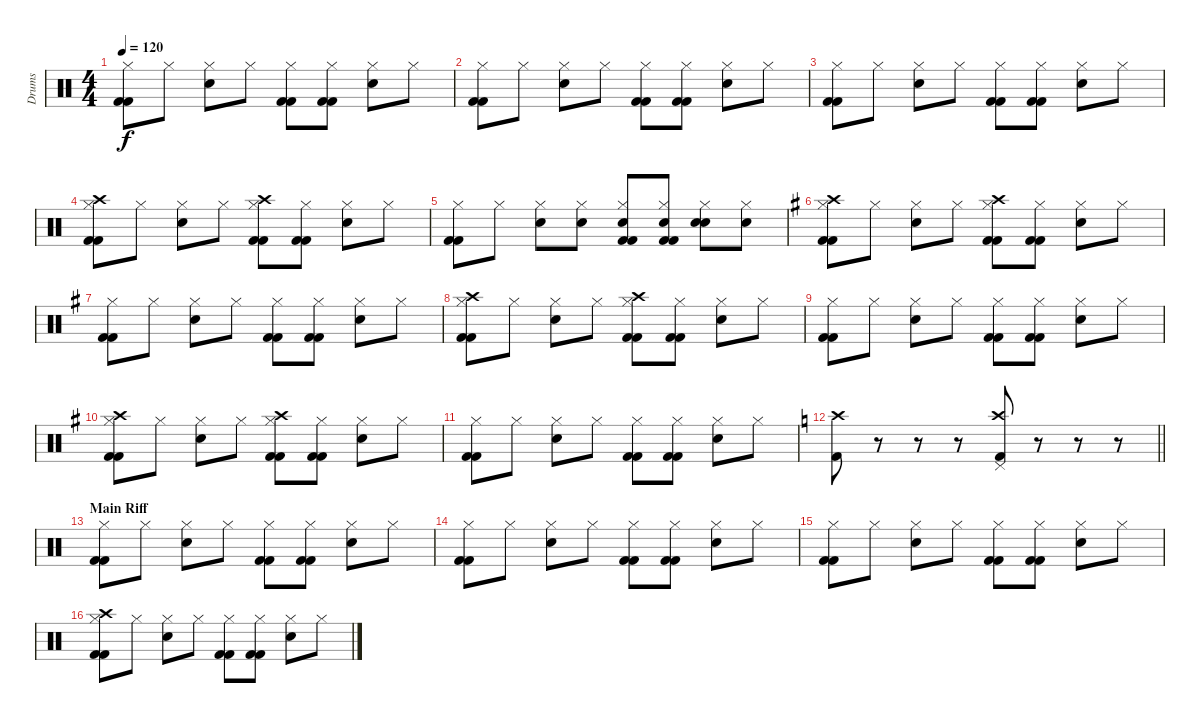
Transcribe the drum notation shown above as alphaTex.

\track ("Drums" "Drums") {instrument percussion}
\staff {score}
\articulation defaults
\ts (4 4)
\tempo 120
\clef neutral
\ks c
("Kick (hit) 2" "Hi-Hat (closed)" "Kick (hit) 2").8{dy f} "Hi-Hat (closed)".8 ("Snare (hit) 2" "Hi-Hat (closed)").8 "Hi-Hat (closed)".8 ("Kick (hit) 2" "Hi-Hat (closed)" "Kick (hit) 2").8 ("Kick (hit) 2" "Hi-Hat (closed)" "Kick (hit) 2").8 ("Snare (hit) 2" "Hi-Hat (closed)").8 "Hi-Hat (closed)".8 |
("Kick (hit) 2" "Hi-Hat (closed)" "Kick (hit) 2").8 "Hi-Hat (closed)".8 ("Snare (hit) 2" "Hi-Hat (closed)").8 "Hi-Hat (closed)".8 ("Kick (hit) 2" "Hi-Hat (closed)" "Kick (hit) 2").8 ("Kick (hit) 2" "Hi-Hat (closed)" "Kick (hit) 2").8 ("Snare (hit) 2" "Hi-Hat (closed)").8 "Hi-Hat (closed)".8 |
("Kick (hit) 2" "Hi-Hat (closed)" "Kick (hit) 2").8 "Hi-Hat (closed)".8 ("Snare (hit) 2" "Hi-Hat (closed)").8 "Hi-Hat (closed)".8 ("Kick (hit) 2" "Hi-Hat (closed)" "Kick (hit) 2").8 ("Kick (hit) 2" "Hi-Hat (closed)" "Kick (hit) 2").8 ("Snare (hit) 2" "Hi-Hat (closed)").8 "Hi-Hat (closed)".8 |
("Kick (hit) 2" "Hi-Hat (closed)" "Kick (hit) 2" "Crash high (hit)").8 "Hi-Hat (closed)".8 ("Snare (hit) 2" "Hi-Hat (closed)").8 "Hi-Hat (closed)".8 ("Kick (hit) 2" "Hi-Hat (closed)" "Kick (hit) 2" "Crash high (hit)").8 ("Kick (hit) 2" "Hi-Hat (closed)" "Kick (hit) 2").8 ("Snare (hit) 2" "Hi-Hat (closed)").8 "Hi-Hat (closed)".8 |
("Kick (hit) 2" "Hi-Hat (closed)" "Kick (hit) 2").8 "Hi-Hat (closed)".8 ("Snare (hit) 2" "Hi-Hat (closed)").8 ("Hi-Hat (closed)" "Snare (hit) 2").8 ("Kick (hit) 2" "Hi-Hat (closed)" "Kick (hit) 2" "Snare (hit) 2").8 ("Kick (hit) 2" "Hi-Hat (closed)" "Kick (hit) 2" "Snare (hit) 2").8 ("Snare (hit) 2" "Hi-Hat (closed)" "Snare (hit) 2").8 ("Hi-Hat (closed)" "Snare (hit) 2").8 |
\ks g
("Kick (hit) 2" "Hi-Hat (closed)" "Kick (hit) 2" "Crash high (hit)").8 "Hi-Hat (closed)".8 ("Snare (hit) 2" "Hi-Hat (closed)").8 "Hi-Hat (closed)".8 ("Kick (hit) 2" "Hi-Hat (closed)" "Kick (hit) 2" "Crash high (hit)").8 ("Kick (hit) 2" "Hi-Hat (closed)" "Kick (hit) 2").8 ("Snare (hit) 2" "Hi-Hat (closed)").8 "Hi-Hat (closed)".8 |
("Kick (hit) 2" "Hi-Hat (closed)" "Kick (hit) 2").8 "Hi-Hat (closed)".8 ("Snare (hit) 2" "Hi-Hat (closed)").8 "Hi-Hat (closed)".8 ("Kick (hit) 2" "Hi-Hat (closed)" "Kick (hit) 2").8 ("Kick (hit) 2" "Hi-Hat (closed)" "Kick (hit) 2").8 ("Snare (hit) 2" "Hi-Hat (closed)").8 "Hi-Hat (closed)".8 |
("Kick (hit) 2" "Hi-Hat (closed)" "Kick (hit) 2" "Crash high (hit)").8 "Hi-Hat (closed)".8 ("Snare (hit) 2" "Hi-Hat (closed)").8 "Hi-Hat (closed)".8 ("Kick (hit) 2" "Hi-Hat (closed)" "Kick (hit) 2" "Crash high (hit)").8 ("Kick (hit) 2" "Hi-Hat (closed)" "Kick (hit) 2").8 ("Snare (hit) 2" "Hi-Hat (closed)").8 "Hi-Hat (closed)".8 |
("Kick (hit) 2" "Hi-Hat (closed)" "Kick (hit) 2").8 "Hi-Hat (closed)".8 ("Snare (hit) 2" "Hi-Hat (closed)").8 "Hi-Hat (closed)".8 ("Kick (hit) 2" "Hi-Hat (closed)" "Kick (hit) 2").8 ("Kick (hit) 2" "Hi-Hat (closed)" "Kick (hit) 2").8 ("Snare (hit) 2" "Hi-Hat (closed)").8 "Hi-Hat (closed)".8 |
("Kick (hit) 2" "Hi-Hat (closed)" "Kick (hit) 2" "Crash high (hit)").8 "Hi-Hat (closed)".8 ("Snare (hit) 2" "Hi-Hat (closed)").8 "Hi-Hat (closed)".8 ("Kick (hit) 2" "Hi-Hat (closed)" "Kick (hit) 2" "Crash high (hit)").8 ("Kick (hit) 2" "Hi-Hat (closed)" "Kick (hit) 2").8 ("Snare (hit) 2" "Hi-Hat (closed)").8 "Hi-Hat (closed)".8 |
("Kick (hit) 2" "Hi-Hat (closed)" "Kick (hit) 2").8 "Hi-Hat (closed)".8 ("Snare (hit) 2" "Hi-Hat (closed)").8 "Hi-Hat (closed)".8 ("Kick (hit) 2" "Hi-Hat (closed)" "Kick (hit) 2").8 ("Kick (hit) 2" "Hi-Hat (closed)" "Kick (hit) 2").8 ("Snare (hit) 2" "Hi-Hat (closed)").8 "Hi-Hat (closed)".8 |
\barLineRight lightlight
\ks c
("Crash high (hit)" "Kick (hit) 2").8 r.8 r.8 r.8 ("Crash high (hit)" "Pedal Hi-Hat (hit)" "Kick (hit) 2").8 r.8 r.8 r.8 |
\section ("" "Main Riff")
("Kick (hit) 2" "Hi-Hat (closed)" "Kick (hit) 2").8 "Hi-Hat (closed)".8 ("Snare (hit) 2" "Hi-Hat (closed)").8 "Hi-Hat (closed)".8 ("Kick (hit) 2" "Hi-Hat (closed)" "Kick (hit) 2").8 ("Kick (hit) 2" "Hi-Hat (closed)" "Kick (hit) 2").8 ("Snare (hit) 2" "Hi-Hat (closed)").8 "Hi-Hat (closed)".8 |
("Kick (hit) 2" "Hi-Hat (closed)" "Kick (hit) 2").8 "Hi-Hat (closed)".8 ("Snare (hit) 2" "Hi-Hat (closed)").8 "Hi-Hat (closed)".8 ("Kick (hit) 2" "Hi-Hat (closed)" "Kick (hit) 2").8 ("Kick (hit) 2" "Hi-Hat (closed)" "Kick (hit) 2").8 ("Snare (hit) 2" "Hi-Hat (closed)").8 "Hi-Hat (closed)".8 |
("Kick (hit) 2" "Hi-Hat (closed)" "Kick (hit) 2").8 "Hi-Hat (closed)".8 ("Snare (hit) 2" "Hi-Hat (closed)").8 "Hi-Hat (closed)".8 ("Kick (hit) 2" "Hi-Hat (closed)" "Kick (hit) 2").8 ("Kick (hit) 2" "Hi-Hat (closed)" "Kick (hit) 2").8 ("Snare (hit) 2" "Hi-Hat (closed)").8 "Hi-Hat (closed)".8 |
("Kick (hit) 2" "Hi-Hat (closed)" "Kick (hit) 2" "Crash high (hit)").8 "Hi-Hat (closed)".8 ("Snare (hit) 2" "Hi-Hat (closed)").8 "Hi-Hat (closed)".8 ("Kick (hit) 2" "Hi-Hat (closed)" "Kick (hit) 2").8 ("Kick (hit) 2" "Hi-Hat (closed)" "Kick (hit) 2").8 ("Snare (hit) 2" "Hi-Hat (closed)").8 "Hi-Hat (closed)".8
